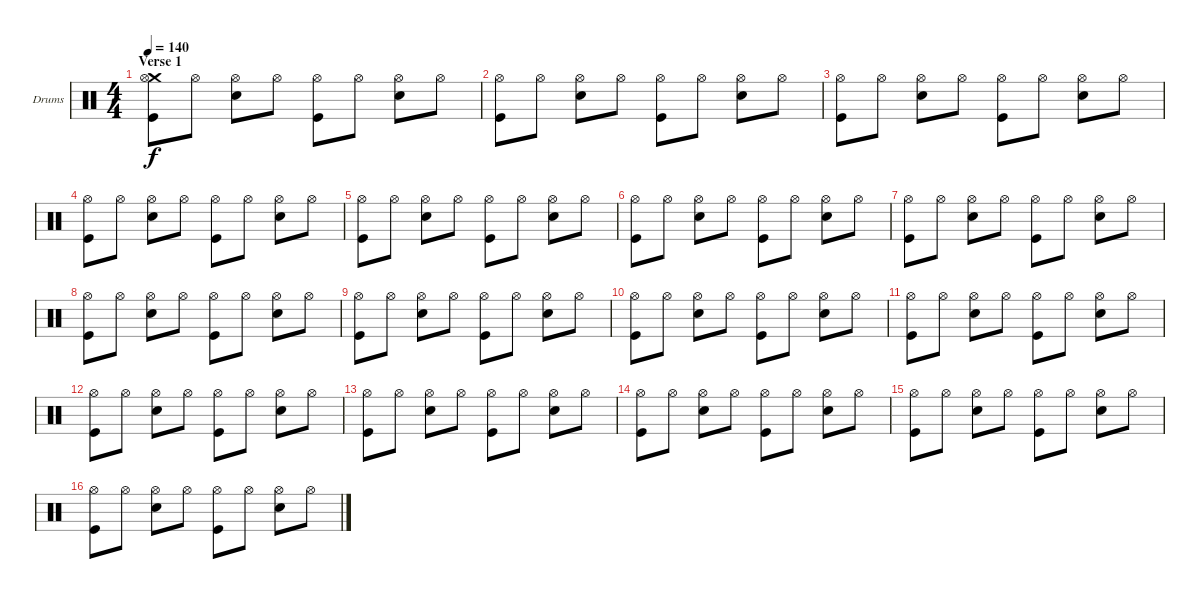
\bracketExtendMode groupsimilarinstruments
\firstSystemTrackNameOrientation horizontal
\otherSystemsTrackNameOrientation horizontal
\track ("Drumkit" "Drums") {instrument percussion}
\staff {score}
\articulation defaults
\ts (4 4)
\section ("" "Verse 1")
\tempo 140
\clef neutral
\ks c
("Crash medium (hit)" "Hi-Hat (open)" "Kick (hit)").8{dy f} "Hi-Hat (open)".8 ("Hi-Hat (open)" "Snare (hit) 2").8 "Hi-Hat (open)".8 ("Hi-Hat (open)" "Kick (hit)").8 "Hi-Hat (open)".8 ("Hi-Hat (open)" "Snare (hit) 2").8 "Hi-Hat (open)".8 |
("Hi-Hat (open)" "Kick (hit)").8 "Hi-Hat (open)".8 ("Hi-Hat (open)" "Snare (hit) 2").8 "Hi-Hat (open)".8 ("Hi-Hat (open)" "Kick (hit)").8 "Hi-Hat (open)".8 ("Hi-Hat (open)" "Snare (hit) 2").8 "Hi-Hat (open)".8 |
("Hi-Hat (open)" "Kick (hit)").8 "Hi-Hat (open)".8 ("Hi-Hat (open)" "Snare (hit) 2").8 "Hi-Hat (open)".8 ("Hi-Hat (open)" "Kick (hit)").8 "Hi-Hat (open)".8 ("Hi-Hat (open)" "Snare (hit) 2").8 "Hi-Hat (open)".8 |
("Hi-Hat (open)" "Kick (hit)").8 "Hi-Hat (open)".8 ("Hi-Hat (open)" "Snare (hit) 2").8 "Hi-Hat (open)".8 ("Hi-Hat (open)" "Kick (hit)").8 "Hi-Hat (open)".8 ("Hi-Hat (open)" "Snare (hit) 2").8 "Hi-Hat (open)".8 |
("Hi-Hat (open)" "Kick (hit)").8 "Hi-Hat (open)".8 ("Hi-Hat (open)" "Snare (hit) 2").8 "Hi-Hat (open)".8 ("Hi-Hat (open)" "Kick (hit)").8 "Hi-Hat (open)".8 ("Hi-Hat (open)" "Snare (hit) 2").8 "Hi-Hat (open)".8 |
("Hi-Hat (open)" "Kick (hit)").8 "Hi-Hat (open)".8 ("Hi-Hat (open)" "Snare (hit) 2").8 "Hi-Hat (open)".8 ("Hi-Hat (open)" "Kick (hit)").8 "Hi-Hat (open)".8 ("Hi-Hat (open)" "Snare (hit) 2").8 "Hi-Hat (open)".8 |
("Hi-Hat (open)" "Kick (hit)").8 "Hi-Hat (open)".8 ("Hi-Hat (open)" "Snare (hit) 2").8 "Hi-Hat (open)".8 ("Hi-Hat (open)" "Kick (hit)").8 "Hi-Hat (open)".8 ("Hi-Hat (open)" "Snare (hit) 2").8 "Hi-Hat (open)".8 |
("Hi-Hat (open)" "Kick (hit)").8 "Hi-Hat (open)".8 ("Hi-Hat (open)" "Snare (hit) 2").8 "Hi-Hat (open)".8 ("Hi-Hat (open)" "Kick (hit)").8 "Hi-Hat (open)".8 ("Hi-Hat (open)" "Snare (hit) 2").8 "Hi-Hat (open)".8 |
("Hi-Hat (open)" "Kick (hit)").8 "Hi-Hat (open)".8 ("Hi-Hat (open)" "Snare (hit) 2").8 "Hi-Hat (open)".8 ("Hi-Hat (open)" "Kick (hit)").8 "Hi-Hat (open)".8 ("Hi-Hat (open)" "Snare (hit) 2").8 "Hi-Hat (open)".8 |
("Hi-Hat (open)" "Kick (hit)").8 "Hi-Hat (open)".8 ("Hi-Hat (open)" "Snare (hit) 2").8 "Hi-Hat (open)".8 ("Hi-Hat (open)" "Kick (hit)").8 "Hi-Hat (open)".8 ("Hi-Hat (open)" "Snare (hit) 2").8 "Hi-Hat (open)".8 |
("Hi-Hat (open)" "Kick (hit)").8 "Hi-Hat (open)".8 ("Hi-Hat (open)" "Snare (hit) 2").8 "Hi-Hat (open)".8 ("Hi-Hat (open)" "Kick (hit)").8 "Hi-Hat (open)".8 ("Hi-Hat (open)" "Snare (hit) 2").8 "Hi-Hat (open)".8 |
("Hi-Hat (open)" "Kick (hit)").8 "Hi-Hat (open)".8 ("Hi-Hat (open)" "Snare (hit) 2").8 "Hi-Hat (open)".8 ("Hi-Hat (open)" "Kick (hit)").8 "Hi-Hat (open)".8 ("Hi-Hat (open)" "Snare (hit) 2").8 "Hi-Hat (open)".8 |
("Hi-Hat (open)" "Kick (hit)").8 "Hi-Hat (open)".8 ("Hi-Hat (open)" "Snare (hit) 2").8 "Hi-Hat (open)".8 ("Hi-Hat (open)" "Kick (hit)").8 "Hi-Hat (open)".8 ("Hi-Hat (open)" "Snare (hit) 2").8 "Hi-Hat (open)".8 |
("Hi-Hat (open)" "Kick (hit)").8 "Hi-Hat (open)".8 ("Hi-Hat (open)" "Snare (hit) 2").8 "Hi-Hat (open)".8 ("Hi-Hat (open)" "Kick (hit)").8 "Hi-Hat (open)".8 ("Hi-Hat (open)" "Snare (hit) 2").8 "Hi-Hat (open)".8 |
("Hi-Hat (open)" "Kick (hit)").8 "Hi-Hat (open)".8 ("Hi-Hat (open)" "Snare (hit) 2").8 "Hi-Hat (open)".8 ("Hi-Hat (open)" "Kick (hit)").8 "Hi-Hat (open)".8 ("Hi-Hat (open)" "Snare (hit) 2").8 "Hi-Hat (open)".8 |
("Hi-Hat (open)" "Kick (hit)").8 "Hi-Hat (open)".8 ("Hi-Hat (open)" "Snare (hit) 2").8 "Hi-Hat (open)".8 ("Hi-Hat (open)" "Kick (hit)").8 "Hi-Hat (open)".8 ("Hi-Hat (open)" "Snare (hit) 2").8 "Hi-Hat (open)".8
